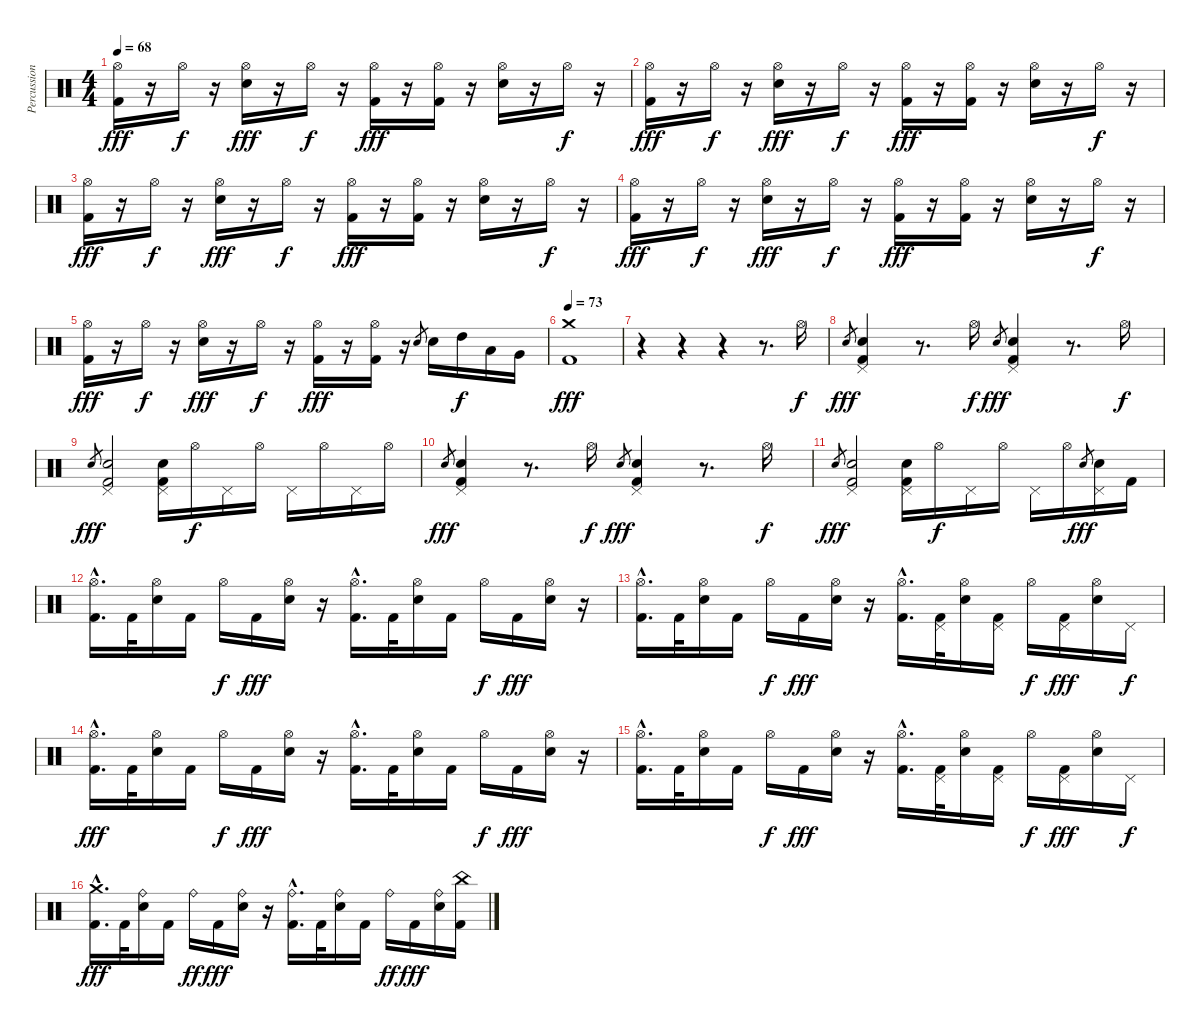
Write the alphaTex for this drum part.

\track ("Percussions" "Percussion") {instrument percussion}
\staff {score}
\articulation defaults
\ts (4 4)
\tempo 68
\clef neutral
\ks c
("Hi-Hat (open)" "Kick (hit) 2").16{dy fff} r.16 "Hi-Hat (open)".16{dy f} r.16 ("Hi-Hat (open)" "Electric Snare (hit)").16{dy fff} r.16 "Hi-Hat (open)".16{dy f} r.16 ("Hi-Hat (open)" "Kick (hit) 2").16{dy fff} r.16 ("Hi-Hat (open)" "Kick (hit) 2").16 r.16 ("Hi-Hat (open)" "Electric Snare (hit)").16 r.16 "Hi-Hat (open)".16{dy f} r.16 |
("Hi-Hat (open)" "Kick (hit) 2").16{dy fff} r.16 "Hi-Hat (open)".16{dy f} r.16 ("Hi-Hat (open)" "Electric Snare (hit)").16{dy fff} r.16 "Hi-Hat (open)".16{dy f} r.16 ("Hi-Hat (open)" "Kick (hit) 2").16{dy fff} r.16 ("Hi-Hat (open)" "Kick (hit) 2").16 r.16 ("Hi-Hat (open)" "Electric Snare (hit)").16 r.16 "Hi-Hat (open)".16{dy f} r.16 |
("Hi-Hat (open)" "Kick (hit) 2").16{dy fff} r.16 "Hi-Hat (open)".16{dy f} r.16 ("Hi-Hat (open)" "Electric Snare (hit)").16{dy fff} r.16 "Hi-Hat (open)".16{dy f} r.16 ("Hi-Hat (open)" "Kick (hit) 2").16{dy fff} r.16 ("Hi-Hat (open)" "Kick (hit) 2").16 r.16 ("Hi-Hat (open)" "Electric Snare (hit)").16 r.16 "Hi-Hat (open)".16{dy f} r.16 |
("Hi-Hat (open)" "Kick (hit) 2").16{dy fff} r.16 "Hi-Hat (open)".16{dy f} r.16 ("Hi-Hat (open)" "Electric Snare (hit)").16{dy fff} r.16 "Hi-Hat (open)".16{dy f} r.16 ("Hi-Hat (open)" "Kick (hit) 2").16{dy fff} r.16 ("Hi-Hat (open)" "Kick (hit) 2").16 r.16 ("Hi-Hat (open)" "Electric Snare (hit)").16 r.16 "Hi-Hat (open)".16{dy f} r.16 |
("Hi-Hat (open)" "Kick (hit) 2").16{dy fff} r.16 "Hi-Hat (open)".16{dy f} r.16 ("Hi-Hat (open)" "Electric Snare (hit)").16{dy fff} r.16 "Hi-Hat (open)".16{dy f} r.16 ("Hi-Hat (open)" "Kick (hit) 2").16{dy fff} r.16 ("Hi-Hat (open)" "Kick (hit) 2").16 r.16 "Electric Snare (hit)".8{gr} "Electric Snare (hit)".16 "High Tom (hit)".16{dy f} "Low Tom (hit)".16 "Very Low Tom (hit)".16 |
\tempo 73
("Crash medium (hit)" "Kick (hit) 2").1{dy fff} |
r.4 r.4 r.4 r.8{d} "Hi-Hat (open)".16{dy f} |
"Electric Snare (hit)".8{gr dy fff} ("Pedal Hi-Hat (hit)" "Electric Snare (hit)" "Kick (hit) 2").4 r.8{d} "Hi-Hat (open)".16{dy f} "Electric Snare (hit)".8{gr dy fff} ("Pedal Hi-Hat (hit)" "Electric Snare (hit)" "Kick (hit) 2").4 r.8{d} "Hi-Hat (open)".16{dy f} |
"Electric Snare (hit)".8{gr dy fff} ("Pedal Hi-Hat (hit)" "Electric Snare (hit)" "Kick (hit) 2").2 ("Pedal Hi-Hat (hit)" "Electric Snare (hit)" "Kick (hit) 2").16 "Hi-Hat (open)".16{dy f} "Pedal Hi-Hat (hit)".16 "Hi-Hat (open)".16 "Pedal Hi-Hat (hit)".16 "Hi-Hat (open)".16 "Pedal Hi-Hat (hit)".16 "Hi-Hat (open)".16 |
"Electric Snare (hit)".8{gr dy fff} ("Pedal Hi-Hat (hit)" "Electric Snare (hit)" "Kick (hit) 2").4 r.8{d} "Hi-Hat (open)".16{dy f} "Electric Snare (hit)".8{gr dy fff} ("Pedal Hi-Hat (hit)" "Electric Snare (hit)" "Kick (hit) 2").4 r.8{d} "Hi-Hat (open)".16{dy f} |
"Electric Snare (hit)".8{gr dy fff} ("Pedal Hi-Hat (hit)" "Electric Snare (hit)" "Kick (hit) 2").2 ("Pedal Hi-Hat (hit)" "Electric Snare (hit)" "Kick (hit) 2").16 "Hi-Hat (open)".16{dy f} "Pedal Hi-Hat (hit)".16 "Hi-Hat (open)".16 "Pedal Hi-Hat (hit)".16 "Hi-Hat (open)".16 "Electric Snare (hit)".8{gr dy fff} ("Pedal Hi-Hat (hit)" "Electric Snare (hit)").16 "Kick (hit) 2".16 |
("Hi-Hat (open)"{hac} "Kick (hit) 2"{hac}).16{d} "Kick (hit) 2".32 ("Hi-Hat (open)" "Electric Snare (hit)").16 "Kick (hit) 2".16 "Hi-Hat (open)".16{dy f} "Kick (hit) 2".16{dy fff} ("Hi-Hat (open)" "Electric Snare (hit)").16 r.16 ("Hi-Hat (open)"{hac} "Kick (hit) 2"{hac}).16{d} "Kick (hit) 2".32 ("Hi-Hat (open)" "Electric Snare (hit)").16 "Kick (hit) 2".16 "Hi-Hat (open)".16{dy f} "Kick (hit) 2".16{dy fff} ("Hi-Hat (open)" "Electric Snare (hit)").16 r.16 |
("Hi-Hat (open)"{hac} "Kick (hit) 2"{hac}).16{d} "Kick (hit) 2".32 ("Hi-Hat (open)" "Electric Snare (hit)").16 "Kick (hit) 2".16 "Hi-Hat (open)".16{dy f} "Kick (hit) 2".16{dy fff} ("Hi-Hat (open)" "Electric Snare (hit)").16 r.16 ("Hi-Hat (open)"{hac} "Kick (hit) 2"{hac}).16{d} ("Pedal Hi-Hat (hit)" "Kick (hit) 2").32 ("Hi-Hat (open)" "Electric Snare (hit)").16 ("Pedal Hi-Hat (hit)" "Kick (hit) 2").16 "Hi-Hat (open)".16{dy f} ("Pedal Hi-Hat (hit)" "Kick (hit) 2").16{dy fff} ("Hi-Hat (open)" "Electric Snare (hit)").16 "Pedal Hi-Hat (hit)".16{dy f} |
("Hi-Hat (open)"{hac} "Kick (hit) 2"{hac}).16{d dy fff} "Kick (hit) 2".32 ("Hi-Hat (open)" "Electric Snare (hit)").16 "Kick (hit) 2".16 "Hi-Hat (open)".16{dy f} "Kick (hit) 2".16{dy fff} ("Hi-Hat (open)" "Electric Snare (hit)").16 r.16 ("Hi-Hat (open)"{hac} "Kick (hit) 2"{hac}).16{d} "Kick (hit) 2".32 ("Hi-Hat (open)" "Electric Snare (hit)").16 "Kick (hit) 2".16 "Hi-Hat (open)".16{dy f} "Kick (hit) 2".16{dy fff} ("Hi-Hat (open)" "Electric Snare (hit)").16 r.16 |
("Hi-Hat (open)"{hac} "Kick (hit) 2"{hac}).16{d} "Kick (hit) 2".32 ("Hi-Hat (open)" "Electric Snare (hit)").16 "Kick (hit) 2".16 "Hi-Hat (open)".16{dy f} "Kick (hit) 2".16{dy fff} ("Hi-Hat (open)" "Electric Snare (hit)").16 r.16 ("Hi-Hat (open)"{hac} "Kick (hit) 2"{hac}).16{d} ("Pedal Hi-Hat (hit)" "Kick (hit) 2").32 ("Hi-Hat (open)" "Electric Snare (hit)").16 ("Pedal Hi-Hat (hit)" "Kick (hit) 2").16 "Hi-Hat (open)".16{dy f} ("Pedal Hi-Hat (hit)" "Kick (hit) 2").16{dy fff} ("Hi-Hat (open)" "Electric Snare (hit)").16 "Pedal Hi-Hat (hit)".16{dy f} |
("Crash medium (hit)"{hac} "Kick (hit) 2"{hac}).16{d dy fff} "Kick (hit) 2".32 ("Ride (bell)" "Electric Snare (hit)").16 "Kick (hit) 2".16 "Ride (bell)".16{dy ff} "Kick (hit) 2".16{dy fff} ("Ride (bell)" "Electric Snare (hit)").16 r.16 ("Ride (bell)"{hac} "Kick (hit) 2"{hac}).16{d} "Kick (hit) 2".32 ("Ride (bell)" "Electric Snare (hit)").16 "Kick (hit) 2".16 "Ride (bell)".16{dy ff} "Kick (hit) 2".16{dy fff} ("Ride (bell)" "Electric Snare (hit)").16 ("China (hit)" "Kick (hit) 2").16
